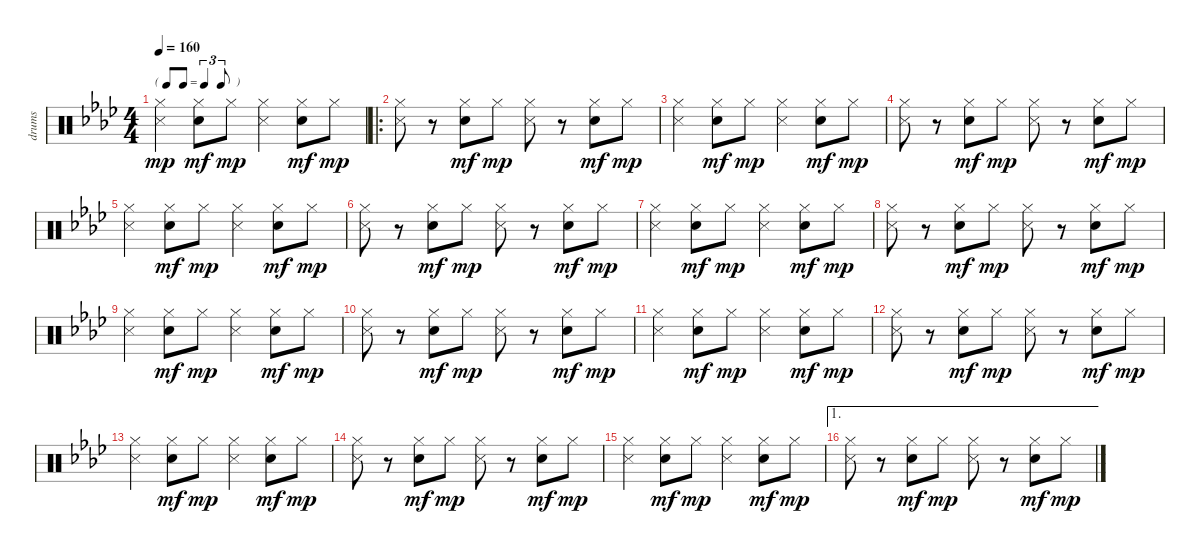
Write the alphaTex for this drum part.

\track ("drums" "drums") {instrument percussion}
\staff {score}
\articulation defaults
\ts (4 4)
\tf triplet8th
\tempo 160
\clef neutral
\ks ab
("Hi-Hat (closed)" "Snare (side stick) 3").4{dy mp} ("Hi-Hat (closed)" "Snare (hit) 2").8{dy mf} "Hi-Hat (closed)".8{dy mp} ("Hi-Hat (closed)" "Snare (side stick) 3").4 ("Hi-Hat (closed)" "Snare (hit) 2").8{dy mf} "Hi-Hat (closed)".8{dy mp} |
\ro
("Hi-Hat (closed)" "Snare (side stick) 3").8 r.8 ("Hi-Hat (closed)" "Snare (hit) 2").8{dy mf} "Hi-Hat (closed)".8{dy mp} ("Hi-Hat (closed)" "Snare (side stick) 3").8 r.8 ("Hi-Hat (closed)" "Snare (hit) 2").8{dy mf} "Hi-Hat (closed)".8{dy mp} |
("Hi-Hat (closed)" "Snare (side stick) 3").4 ("Hi-Hat (closed)" "Snare (hit) 2").8{dy mf} "Hi-Hat (closed)".8{dy mp} ("Hi-Hat (closed)" "Snare (side stick) 3").4 ("Hi-Hat (closed)" "Snare (hit) 2").8{dy mf} "Hi-Hat (closed)".8{dy mp} |
("Hi-Hat (closed)" "Snare (side stick) 3").8 r.8 ("Hi-Hat (closed)" "Snare (hit) 2").8{dy mf} "Hi-Hat (closed)".8{dy mp} ("Hi-Hat (closed)" "Snare (side stick) 3").8 r.8 ("Hi-Hat (closed)" "Snare (hit) 2").8{dy mf} "Hi-Hat (closed)".8{dy mp} |
("Hi-Hat (closed)" "Snare (side stick) 3").4 ("Hi-Hat (closed)" "Snare (hit) 2").8{dy mf} "Hi-Hat (closed)".8{dy mp} ("Hi-Hat (closed)" "Snare (side stick) 3").4 ("Hi-Hat (closed)" "Snare (hit) 2").8{dy mf} "Hi-Hat (closed)".8{dy mp} |
("Hi-Hat (closed)" "Snare (side stick) 3").8 r.8 ("Hi-Hat (closed)" "Snare (hit) 2").8{dy mf} "Hi-Hat (closed)".8{dy mp} ("Hi-Hat (closed)" "Snare (side stick) 3").8 r.8 ("Hi-Hat (closed)" "Snare (hit) 2").8{dy mf} "Hi-Hat (closed)".8{dy mp} |
("Hi-Hat (closed)" "Snare (side stick) 3").4 ("Hi-Hat (closed)" "Snare (hit) 2").8{dy mf} "Hi-Hat (closed)".8{dy mp} ("Hi-Hat (closed)" "Snare (side stick) 3").4 ("Hi-Hat (closed)" "Snare (hit) 2").8{dy mf} "Hi-Hat (closed)".8{dy mp} |
("Hi-Hat (closed)" "Snare (side stick) 3").8 r.8 ("Hi-Hat (closed)" "Snare (hit) 2").8{dy mf} "Hi-Hat (closed)".8{dy mp} ("Hi-Hat (closed)" "Snare (side stick) 3").8 r.8 ("Hi-Hat (closed)" "Snare (hit) 2").8{dy mf} "Hi-Hat (closed)".8{dy mp} |
("Hi-Hat (closed)" "Snare (side stick) 3").4 ("Hi-Hat (closed)" "Snare (hit) 2").8{dy mf} "Hi-Hat (closed)".8{dy mp} ("Hi-Hat (closed)" "Snare (side stick) 3").4 ("Hi-Hat (closed)" "Snare (hit) 2").8{dy mf} "Hi-Hat (closed)".8{dy mp} |
("Hi-Hat (closed)" "Snare (side stick) 3").8 r.8 ("Hi-Hat (closed)" "Snare (hit) 2").8{dy mf} "Hi-Hat (closed)".8{dy mp} ("Hi-Hat (closed)" "Snare (side stick) 3").8 r.8 ("Hi-Hat (closed)" "Snare (hit) 2").8{dy mf} "Hi-Hat (closed)".8{dy mp} |
("Hi-Hat (closed)" "Snare (side stick) 3").4 ("Hi-Hat (closed)" "Snare (hit) 2").8{dy mf} "Hi-Hat (closed)".8{dy mp} ("Hi-Hat (closed)" "Snare (side stick) 3").4 ("Hi-Hat (closed)" "Snare (hit) 2").8{dy mf} "Hi-Hat (closed)".8{dy mp} |
("Hi-Hat (closed)" "Snare (side stick) 3").8 r.8 ("Hi-Hat (closed)" "Snare (hit) 2").8{dy mf} "Hi-Hat (closed)".8{dy mp} ("Hi-Hat (closed)" "Snare (side stick) 3").8 r.8 ("Hi-Hat (closed)" "Snare (hit) 2").8{dy mf} "Hi-Hat (closed)".8{dy mp} |
("Hi-Hat (closed)" "Snare (side stick) 3").4 ("Hi-Hat (closed)" "Snare (hit) 2").8{dy mf} "Hi-Hat (closed)".8{dy mp} ("Hi-Hat (closed)" "Snare (side stick) 3").4 ("Hi-Hat (closed)" "Snare (hit) 2").8{dy mf} "Hi-Hat (closed)".8{dy mp} |
("Hi-Hat (closed)" "Snare (side stick) 3").8 r.8 ("Hi-Hat (closed)" "Snare (hit) 2").8{dy mf} "Hi-Hat (closed)".8{dy mp} ("Hi-Hat (closed)" "Snare (side stick) 3").8 r.8 ("Hi-Hat (closed)" "Snare (hit) 2").8{dy mf} "Hi-Hat (closed)".8{dy mp} |
("Hi-Hat (closed)" "Snare (side stick) 3").4 ("Hi-Hat (closed)" "Snare (hit) 2").8{dy mf} "Hi-Hat (closed)".8{dy mp} ("Hi-Hat (closed)" "Snare (side stick) 3").4 ("Hi-Hat (closed)" "Snare (hit) 2").8{dy mf} "Hi-Hat (closed)".8{dy mp} |
\ae 1
("Hi-Hat (closed)" "Snare (side stick) 3").8 r.8 ("Hi-Hat (closed)" "Snare (hit) 2").8{dy mf} "Hi-Hat (closed)".8{dy mp} ("Hi-Hat (closed)" "Snare (side stick) 3").8 r.8 ("Hi-Hat (closed)" "Snare (hit) 2").8{dy mf} "Hi-Hat (closed)".8{dy mp}
